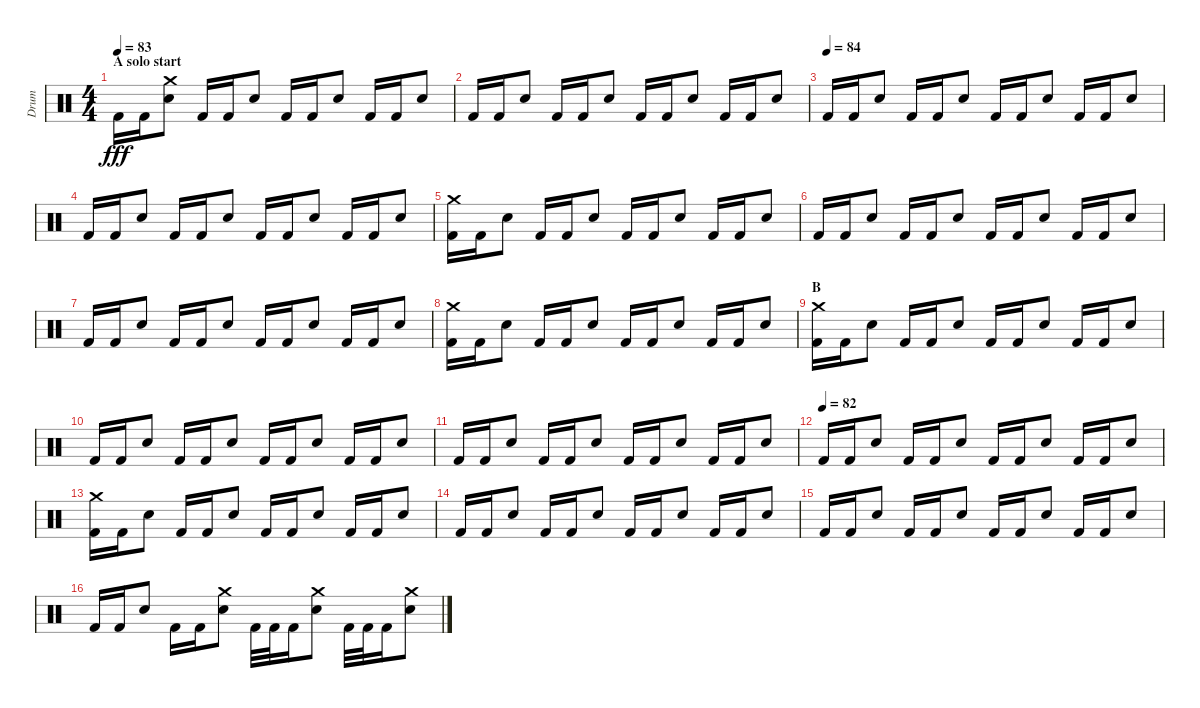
\track ("Drum" "Drum") {instrument percussion}
\staff {score}
\articulation defaults
\ts (4 4)
\section ("" "A solo start")
\tempo 83
\clef neutral
\ks c "Kick (hit) 2".16{dy fff} "Kick (hit) 2".16
("Electric Snare (hit)" "Crash medium (hit)").8 "Kick (hit) 2".16 "Kick (hit) 2".16 "Electric Snare (hit)".8 "Kick (hit) 2".16 "Kick (hit) 2".16 "Electric Snare (hit)".8 "Kick (hit) 2".16 "Kick (hit) 2".16 "Electric Snare (hit)".8 |
"Kick (hit) 2".16 "Kick (hit) 2".16 "Electric Snare (hit)".8 "Kick (hit) 2".16 "Kick (hit) 2".16 "Electric Snare (hit)".8 "Kick (hit) 2".16 "Kick (hit) 2".16 "Electric Snare (hit)".8 "Kick (hit) 2".16 "Kick (hit) 2".16 "Electric Snare (hit)".8 |
\tempo (84)
"Kick (hit) 2".16 "Kick (hit) 2".16 "Electric Snare (hit)".8 "Kick (hit) 2".16 "Kick (hit) 2".16 "Electric Snare (hit)".8 "Kick (hit) 2".16 "Kick (hit) 2".16 "Electric Snare (hit)".8 "Kick (hit) 2".16 "Kick (hit) 2".16 "Electric Snare (hit)".8 |
"Kick (hit) 2".16 "Kick (hit) 2".16 "Electric Snare (hit)".8 "Kick (hit) 2".16 "Kick (hit) 2".16 "Electric Snare (hit)".8 "Kick (hit) 2".16 "Kick (hit) 2".16 "Electric Snare (hit)".8 "Kick (hit) 2".16 "Kick (hit) 2".16 "Electric Snare (hit)".8 |
("Kick (hit) 2" "Crash medium (hit)").16 "Kick (hit) 2".16 "Electric Snare (hit)".8 "Kick (hit) 2".16 "Kick (hit) 2".16 "Electric Snare (hit)".8 "Kick (hit) 2".16 "Kick (hit) 2".16 "Electric Snare (hit)".8 "Kick (hit) 2".16 "Kick (hit) 2".16 "Electric Snare (hit)".8 |
"Kick (hit) 2".16 "Kick (hit) 2".16 "Electric Snare (hit)".8 "Kick (hit) 2".16 "Kick (hit) 2".16 "Electric Snare (hit)".8 "Kick (hit) 2".16 "Kick (hit) 2".16 "Electric Snare (hit)".8 "Kick (hit) 2".16 "Kick (hit) 2".16 "Electric Snare (hit)".8 |
"Kick (hit) 2".16 "Kick (hit) 2".16 "Electric Snare (hit)".8 "Kick (hit) 2".16 "Kick (hit) 2".16 "Electric Snare (hit)".8 "Kick (hit) 2".16 "Kick (hit) 2".16 "Electric Snare (hit)".8 "Kick (hit) 2".16 "Kick (hit) 2".16 "Electric Snare (hit)".8 |
("Kick (hit) 2" "Crash medium (hit)").16 "Kick (hit) 2".16 "Electric Snare (hit)".8 "Kick (hit) 2".16 "Kick (hit) 2".16 "Electric Snare (hit)".8 "Kick (hit) 2".16 "Kick (hit) 2".16 "Electric Snare (hit)".8 "Kick (hit) 2".16 "Kick (hit) 2".16 "Electric Snare (hit)".8 |
\section ("" "B")
("Kick (hit) 2" "Crash medium (hit)").16 "Kick (hit) 2".16 "Electric Snare (hit)".8 "Kick (hit) 2".16 "Kick (hit) 2".16 "Electric Snare (hit)".8 "Kick (hit) 2".16 "Kick (hit) 2".16 "Electric Snare (hit)".8 "Kick (hit) 2".16 "Kick (hit) 2".16 "Electric Snare (hit)".8 |
"Kick (hit) 2".16 "Kick (hit) 2".16 "Electric Snare (hit)".8 "Kick (hit) 2".16 "Kick (hit) 2".16 "Electric Snare (hit)".8 "Kick (hit) 2".16 "Kick (hit) 2".16 "Electric Snare (hit)".8 "Kick (hit) 2".16 "Kick (hit) 2".16 "Electric Snare (hit)".8 |
"Kick (hit) 2".16 "Kick (hit) 2".16 "Electric Snare (hit)".8 "Kick (hit) 2".16 "Kick (hit) 2".16 "Electric Snare (hit)".8 "Kick (hit) 2".16 "Kick (hit) 2".16 "Electric Snare (hit)".8 "Kick (hit) 2".16 "Kick (hit) 2".16 "Electric Snare (hit)".8 |
\tempo (82)
"Kick (hit) 2".16 "Kick (hit) 2".16 "Electric Snare (hit)".8 "Kick (hit) 2".16 "Kick (hit) 2".16 "Electric Snare (hit)".8 "Kick (hit) 2".16 "Kick (hit) 2".16 "Electric Snare (hit)".8 "Kick (hit) 2".16 "Kick (hit) 2".16 "Electric Snare (hit)".8 |
("Kick (hit) 2" "Crash medium (hit)").16 "Kick (hit) 2".16 "Electric Snare (hit)".8 "Kick (hit) 2".16 "Kick (hit) 2".16 "Electric Snare (hit)".8 "Kick (hit) 2".16 "Kick (hit) 2".16 "Electric Snare (hit)".8 "Kick (hit) 2".16 "Kick (hit) 2".16 "Electric Snare (hit)".8 |
"Kick (hit) 2".16 "Kick (hit) 2".16 "Electric Snare (hit)".8 "Kick (hit) 2".16 "Kick (hit) 2".16 "Electric Snare (hit)".8 "Kick (hit) 2".16 "Kick (hit) 2".16 "Electric Snare (hit)".8 "Kick (hit) 2".16 "Kick (hit) 2".16 "Electric Snare (hit)".8 |
"Kick (hit) 2".16 "Kick (hit) 2".16 "Electric Snare (hit)".8 "Kick (hit) 2".16 "Kick (hit) 2".16 "Electric Snare (hit)".8 "Kick (hit) 2".16 "Kick (hit) 2".16 "Electric Snare (hit)".8 "Kick (hit) 2".16 "Kick (hit) 2".16 "Electric Snare (hit)".8 |
"Kick (hit) 2".16 "Kick (hit) 2".16 "Electric Snare (hit)".8 "Kick (hit) 2".16 "Kick (hit) 2".16 ("Electric Snare (hit)" "Crash medium (hit)").8 "Kick (hit) 2".32 "Kick (hit) 2".32 "Kick (hit) 2".16 ("Electric Snare (hit)" "Crash medium (hit)").8 "Kick (hit) 2".32 "Kick (hit) 2".32 "Kick (hit) 2".16 ("Electric Snare (hit)" "Crash medium (hit)").8
